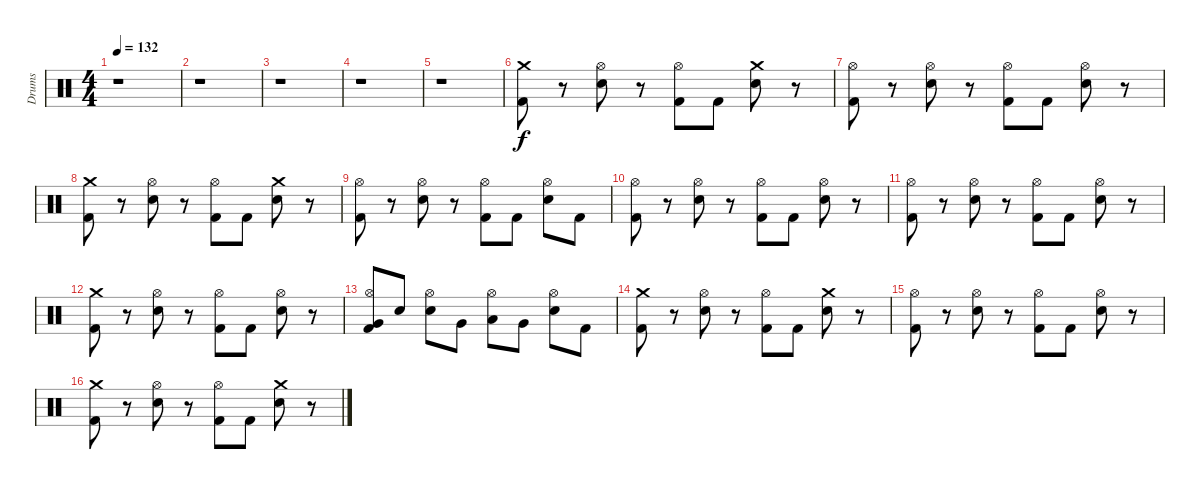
\track ("Drums" "Drums") {instrument percussion}
\staff {score}
\articulation defaults
\ts (4 4)
\tempo 132
\clef neutral
\ks c
r.1{dy f} |
r.1 |
r.1 |
r.1 |
r.1 |
("Kick (hit) 2" "Crash medium (hit)").8 r.8 ("Snare (hit) 2" "Hi-Hat (open)").8 r.8 ("Kick (hit) 2" "Hi-Hat (open)").8 "Kick (hit) 2".8 ("Snare (hit) 2" "Crash medium (hit)").8 r.8 |
("Kick (hit) 2" "Hi-Hat (open)").8 r.8 ("Snare (hit) 2" "Hi-Hat (open)").8 r.8 ("Kick (hit) 2" "Hi-Hat (open)").8 "Kick (hit) 2".8 ("Snare (hit) 2" "Hi-Hat (open)").8 r.8 |
("Kick (hit) 2" "Crash medium (hit)").8 r.8 ("Snare (hit) 2" "Hi-Hat (open)").8 r.8 ("Kick (hit) 2" "Hi-Hat (open)").8 "Kick (hit) 2".8 ("Snare (hit) 2" "Crash medium (hit)").8 r.8 |
("Kick (hit) 2" "Hi-Hat (open)").8 r.8 ("Snare (hit) 2" "Hi-Hat (open)").8 r.8 ("Kick (hit) 2" "Hi-Hat (open)").8 "Kick (hit) 2".8 ("Snare (hit) 2" "Hi-Hat (open)").8 "Kick (hit) 2".8 |
("Kick (hit) 2" "Hi-Hat (open)").8 r.8 ("Snare (hit) 2" "Hi-Hat (open)").8 r.8 ("Kick (hit) 2" "Hi-Hat (open)").8 "Kick (hit) 2".8 ("Snare (hit) 2" "Hi-Hat (open)").8 r.8 |
("Kick (hit) 2" "Hi-Hat (open)").8 r.8 ("Snare (hit) 2" "Hi-Hat (open)").8 r.8 ("Kick (hit) 2" "Hi-Hat (open)").8 "Kick (hit) 2".8 ("Snare (hit) 2" "Hi-Hat (open)").8 r.8 |
("Kick (hit) 2" "Crash medium (hit)").8 r.8 ("Snare (hit) 2" "Hi-Hat (open)").8 r.8 ("Kick (hit) 2" "Hi-Hat (open)").8 "Kick (hit) 2".8 ("Snare (hit) 2" "Hi-Hat (open)").8 r.8 |
("Kick (hit) 2" "Very Low Tom (hit)" "Hi-Hat (open)").8 "Snare (hit) 2".8 ("Snare (hit) 2" "Hi-Hat (open)").8 "Very Low Tom (hit)".8 ("Low Floor Tom (hit)" "Hi-Hat (open)").8 "Very Low Tom (hit)".8 ("Snare (hit) 2" "Hi-Hat (open)").8 "Kick (hit) 2".8 |
("Kick (hit) 2" "Crash medium (hit)").8 r.8 ("Snare (hit) 2" "Hi-Hat (open)").8 r.8 ("Kick (hit) 2" "Hi-Hat (open)").8 "Kick (hit) 2".8 ("Snare (hit) 2" "Crash medium (hit)").8 r.8 |
("Kick (hit) 2" "Hi-Hat (open)").8 r.8 ("Snare (hit) 2" "Hi-Hat (open)").8 r.8 ("Kick (hit) 2" "Hi-Hat (open)").8 "Kick (hit) 2".8 ("Snare (hit) 2" "Hi-Hat (open)").8 r.8 |
("Kick (hit) 2" "Crash medium (hit)").8 r.8 ("Snare (hit) 2" "Hi-Hat (open)").8 r.8 ("Kick (hit) 2" "Hi-Hat (open)").8 "Kick (hit) 2".8 ("Snare (hit) 2" "Crash medium (hit)").8 r.8
